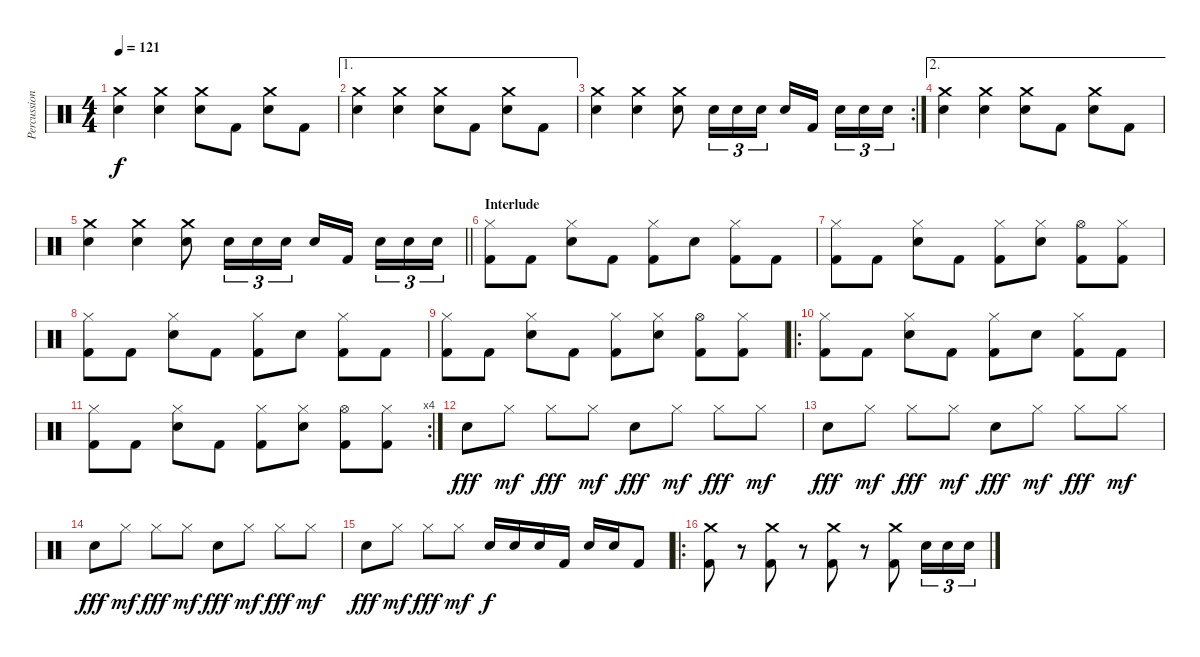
\track ("Percussion" "Percussion") {instrument percussion}
\staff {score}
\articulation defaults
\ts (4 4)
\tempo 121
\clef neutral
\ks c
("Crash medium (hit)" "Electric Snare (hit)").4{dy f} ("Crash medium (hit)" "Electric Snare (hit)").4 ("Crash medium (hit)" "Electric Snare (hit)").8 "Kick (hit) 2".8 ("Crash medium (hit)" "Electric Snare (hit)").8 "Kick (hit) 2".8 |
\ae 1
("Crash medium (hit)" "Electric Snare (hit)").4 ("Crash medium (hit)" "Electric Snare (hit)").4 ("Crash medium (hit)" "Electric Snare (hit)").8 "Kick (hit) 2".8 ("Crash medium (hit)" "Electric Snare (hit)").8 "Kick (hit) 2".8 |
\rc 2
("Crash medium (hit)" "Electric Snare (hit)").4 ("Crash medium (hit)" "Electric Snare (hit)").4 ("Crash medium (hit)" "Electric Snare (hit)").8 "Electric Snare (hit)".16{tu (3 2)} "Electric Snare (hit)".16{tu (3 2)} "Electric Snare (hit)".16{tu (3 2)} "Electric Snare (hit)".16 "Kick (hit) 2".16{beam splitsecondary} "Electric Snare (hit)".16{tu (3 2)} "Electric Snare (hit)".16{tu (3 2)} "Electric Snare (hit)".16{tu (3 2)} |
\ae 2
("Crash medium (hit)" "Electric Snare (hit)").4 ("Crash medium (hit)" "Electric Snare (hit)").4 ("Crash medium (hit)" "Electric Snare (hit)").8 "Kick (hit) 2".8 ("Crash medium (hit)" "Electric Snare (hit)").8 "Kick (hit) 2".8 |
\barLineRight lightlight
("Crash medium (hit)" "Electric Snare (hit)").4 ("Crash medium (hit)" "Electric Snare (hit)").4 ("Crash medium (hit)" "Electric Snare (hit)").8 "Electric Snare (hit)".16{tu (3 2)} "Electric Snare (hit)".16{tu (3 2)} "Electric Snare (hit)".16{tu (3 2)} "Electric Snare (hit)".16 "Kick (hit) 2".16{beam splitsecondary} "Electric Snare (hit)".16{tu (3 2)} "Electric Snare (hit)".16{tu (3 2)} "Electric Snare (hit)".16{tu (3 2)} |
\section ("" "Interlude")
("Hi-Hat (closed)" "Kick (hit) 2").8 "Kick (hit) 2".8 ("Hi-Hat (closed)" "Electric Snare (hit)").8 "Kick (hit) 2".8 ("Hi-Hat (closed)" "Kick (hit) 2").8 "Electric Snare (hit)".8 ("Hi-Hat (closed)" "Kick (hit) 2").8 "Kick (hit) 2".8 |
("Hi-Hat (closed)" "Kick (hit) 2").8 "Kick (hit) 2".8 ("Hi-Hat (closed)" "Electric Snare (hit)").8 "Kick (hit) 2".8 ("Hi-Hat (closed)" "Kick (hit) 2").8 ("Hi-Hat (closed)" "Electric Snare (hit)").8 ("Hi-Hat (open)" "Kick (hit) 2").8 ("Hi-Hat (closed)" "Kick (hit) 2").8 |
("Hi-Hat (closed)" "Kick (hit) 2").8 "Kick (hit) 2".8 ("Hi-Hat (closed)" "Electric Snare (hit)").8 "Kick (hit) 2".8 ("Hi-Hat (closed)" "Kick (hit) 2").8 "Electric Snare (hit)".8 ("Hi-Hat (closed)" "Kick (hit) 2").8 "Kick (hit) 2".8 |
("Hi-Hat (closed)" "Kick (hit) 2").8 "Kick (hit) 2".8 ("Hi-Hat (closed)" "Electric Snare (hit)").8 "Kick (hit) 2".8 ("Hi-Hat (closed)" "Kick (hit) 2").8 ("Hi-Hat (closed)" "Electric Snare (hit)").8 ("Hi-Hat (open)" "Kick (hit) 2").8 ("Hi-Hat (closed)" "Kick (hit) 2").8 |
\ro
("Hi-Hat (closed)" "Kick (hit) 2").8 "Kick (hit) 2".8 ("Hi-Hat (closed)" "Electric Snare (hit)").8 "Kick (hit) 2".8 ("Hi-Hat (closed)" "Kick (hit) 2").8 "Electric Snare (hit)".8 ("Hi-Hat (closed)" "Kick (hit) 2").8 "Kick (hit) 2".8 |
\rc 4
("Hi-Hat (closed)" "Kick (hit) 2").8 "Kick (hit) 2".8 ("Hi-Hat (closed)" "Electric Snare (hit)").8 "Kick (hit) 2".8 ("Hi-Hat (closed)" "Kick (hit) 2").8 ("Hi-Hat (closed)" "Electric Snare (hit)").8 ("Hi-Hat (open)" "Kick (hit) 2").8 ("Hi-Hat (closed)" "Kick (hit) 2").8 |
"Electric Snare (hit)".8{dy fff} "Hi-Hat (closed)".8{dy mf} "Hi-Hat (closed)".8{dy fff} "Hi-Hat (closed)".8{dy mf} "Electric Snare (hit)".8{dy fff} "Hi-Hat (closed)".8{dy mf} "Hi-Hat (closed)".8{dy fff} "Hi-Hat (closed)".8{dy mf} |
"Electric Snare (hit)".8{dy fff} "Hi-Hat (closed)".8{dy mf} "Hi-Hat (closed)".8{dy fff} "Hi-Hat (closed)".8{dy mf} "Electric Snare (hit)".8{dy fff} "Hi-Hat (closed)".8{dy mf} "Hi-Hat (closed)".8{dy fff} "Hi-Hat (closed)".8{dy mf} |
"Electric Snare (hit)".8{dy fff} "Hi-Hat (closed)".8{dy mf} "Hi-Hat (closed)".8{dy fff} "Hi-Hat (closed)".8{dy mf} "Electric Snare (hit)".8{dy fff} "Hi-Hat (closed)".8{dy mf} "Hi-Hat (closed)".8{dy fff} "Hi-Hat (closed)".8{dy mf} |
"Electric Snare (hit)".8{dy fff} "Hi-Hat (closed)".8{dy mf} "Hi-Hat (closed)".8{dy fff} "Hi-Hat (closed)".8{dy mf} "Electric Snare (hit)".16{dy f} "Electric Snare (hit)".16 "Electric Snare (hit)".16 "Kick (hit) 2".16 "Electric Snare (hit)".16 "Electric Snare (hit)".16 "Kick (hit) 2".8 |
\ro
("Crash medium (hit)" "Kick (hit) 2").8 r.8 ("Crash medium (hit)" "Kick (hit) 2").8 r.8 ("Crash medium (hit)" "Kick (hit) 2").8 r.8 ("Crash medium (hit)" "Kick (hit) 2").8 "Electric Snare (hit)".16{tu (3 2)} "Electric Snare (hit)".16{tu (3 2)} "Electric Snare (hit)".16{tu (3 2)}
